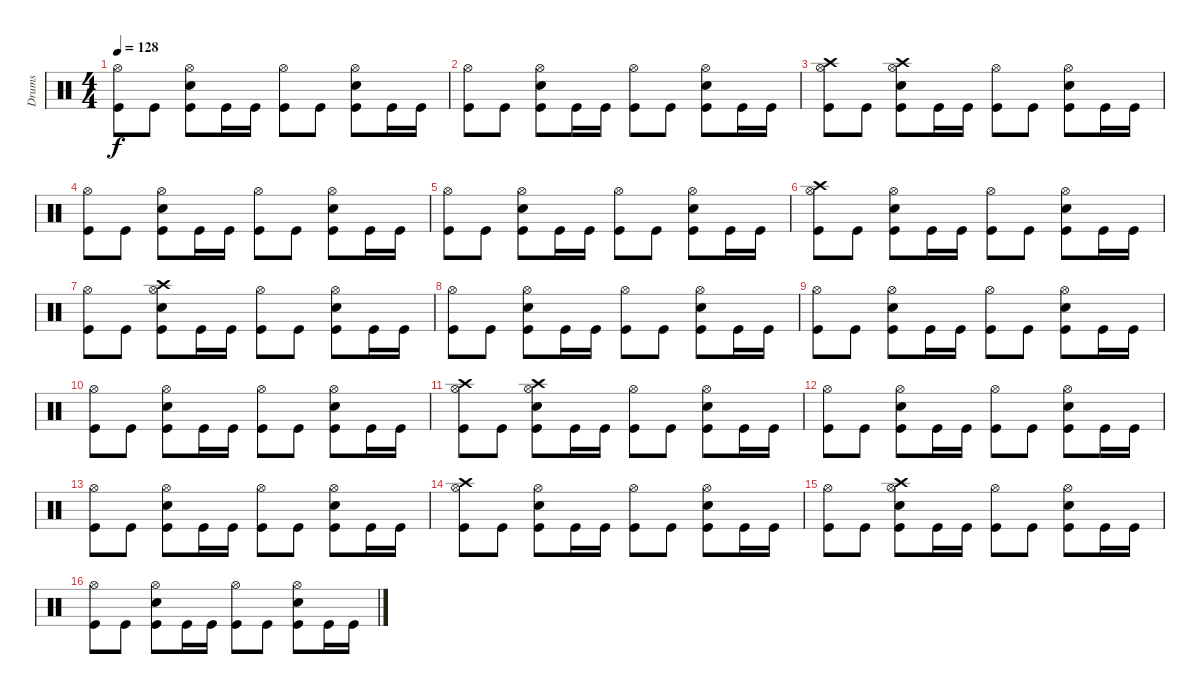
\track ("Drums" "Drums") {instrument percussion}
\staff {score}
\articulation defaults
\ts (4 4)
\tempo 128
\clef neutral
\ks c
("Hi-Hat (open)" "Kick (hit)").8{dy f} "Kick (hit)".8 ("Hi-Hat (open)" "Snare (hit) 2" "Kick (hit)").8 "Kick (hit)".16 "Kick (hit)".16 ("Hi-Hat (open)" "Kick (hit)").8 "Kick (hit)".8 ("Hi-Hat (open)" "Snare (hit) 2" "Kick (hit)").8 "Kick (hit)".16 "Kick (hit)".16 |
("Hi-Hat (open)" "Kick (hit)").8 "Kick (hit)".8 ("Hi-Hat (open)" "Snare (hit) 2" "Kick (hit)").8 "Kick (hit)".16 "Kick (hit)".16 ("Hi-Hat (open)" "Kick (hit)").8 "Kick (hit)".8 ("Hi-Hat (open)" "Snare (hit) 2" "Kick (hit)").8 "Kick (hit)".16 "Kick (hit)".16 |
("Crash high (hit)" "Hi-Hat (open)" "Kick (hit)").8 "Kick (hit)".8 ("Crash high (hit)" "Hi-Hat (open)" "Snare (hit) 2" "Kick (hit)").8 "Kick (hit)".16 "Kick (hit)".16 ("Hi-Hat (open)" "Kick (hit)").8 "Kick (hit)".8 ("Hi-Hat (open)" "Snare (hit) 2" "Kick (hit)").8 "Kick (hit)".16 "Kick (hit)".16 |
("Hi-Hat (open)" "Kick (hit)").8 "Kick (hit)".8 ("Hi-Hat (open)" "Snare (hit) 2" "Kick (hit)").8 "Kick (hit)".16 "Kick (hit)".16 ("Hi-Hat (open)" "Kick (hit)").8 "Kick (hit)".8 ("Hi-Hat (open)" "Snare (hit) 2" "Kick (hit)").8 "Kick (hit)".16 "Kick (hit)".16 |
("Hi-Hat (open)" "Kick (hit)").8 "Kick (hit)".8 ("Hi-Hat (open)" "Snare (hit) 2" "Kick (hit)").8 "Kick (hit)".16 "Kick (hit)".16 ("Hi-Hat (open)" "Kick (hit)").8 "Kick (hit)".8 ("Hi-Hat (open)" "Snare (hit) 2" "Kick (hit)").8 "Kick (hit)".16 "Kick (hit)".16 |
("Crash high (hit)" "Hi-Hat (open)" "Kick (hit)").8 "Kick (hit)".8 ("Hi-Hat (open)" "Snare (hit) 2" "Kick (hit)").8 "Kick (hit)".16 "Kick (hit)".16 ("Hi-Hat (open)" "Kick (hit)").8 "Kick (hit)".8 ("Hi-Hat (open)" "Snare (hit) 2" "Kick (hit)").8 "Kick (hit)".16 "Kick (hit)".16 |
("Hi-Hat (open)" "Kick (hit)").8 "Kick (hit)".8 ("Crash high (hit)" "Hi-Hat (open)" "Snare (hit) 2" "Kick (hit)").8 "Kick (hit)".16 "Kick (hit)".16 ("Hi-Hat (open)" "Kick (hit)").8 "Kick (hit)".8 ("Hi-Hat (open)" "Snare (hit) 2" "Kick (hit)").8 "Kick (hit)".16 "Kick (hit)".16 |
("Hi-Hat (open)" "Kick (hit)").8 "Kick (hit)".8 ("Hi-Hat (open)" "Snare (hit) 2" "Kick (hit)").8 "Kick (hit)".16 "Kick (hit)".16 ("Hi-Hat (open)" "Kick (hit)").8 "Kick (hit)".8 ("Hi-Hat (open)" "Snare (hit) 2" "Kick (hit)").8 "Kick (hit)".16 "Kick (hit)".16 |
("Hi-Hat (open)" "Kick (hit)").8 "Kick (hit)".8 ("Hi-Hat (open)" "Snare (hit) 2" "Kick (hit)").8 "Kick (hit)".16 "Kick (hit)".16 ("Hi-Hat (open)" "Kick (hit)").8 "Kick (hit)".8 ("Hi-Hat (open)" "Snare (hit) 2" "Kick (hit)").8 "Kick (hit)".16 "Kick (hit)".16 |
("Hi-Hat (open)" "Kick (hit)").8 "Kick (hit)".8 ("Hi-Hat (open)" "Snare (hit) 2" "Kick (hit)").8 "Kick (hit)".16 "Kick (hit)".16 ("Hi-Hat (open)" "Kick (hit)").8 "Kick (hit)".8 ("Hi-Hat (open)" "Snare (hit) 2" "Kick (hit)").8 "Kick (hit)".16 "Kick (hit)".16 |
("Crash high (hit)" "Hi-Hat (open)" "Kick (hit)").8 "Kick (hit)".8 ("Crash high (hit)" "Hi-Hat (open)" "Snare (hit) 2" "Kick (hit)").8 "Kick (hit)".16 "Kick (hit)".16 ("Hi-Hat (open)" "Kick (hit)").8 "Kick (hit)".8 ("Hi-Hat (open)" "Snare (hit) 2" "Kick (hit)").8 "Kick (hit)".16 "Kick (hit)".16 |
("Hi-Hat (open)" "Kick (hit)").8 "Kick (hit)".8 ("Hi-Hat (open)" "Snare (hit) 2" "Kick (hit)").8 "Kick (hit)".16 "Kick (hit)".16 ("Hi-Hat (open)" "Kick (hit)").8 "Kick (hit)".8 ("Hi-Hat (open)" "Snare (hit) 2" "Kick (hit)").8 "Kick (hit)".16 "Kick (hit)".16 |
("Hi-Hat (open)" "Kick (hit)").8 "Kick (hit)".8 ("Hi-Hat (open)" "Snare (hit) 2" "Kick (hit)").8 "Kick (hit)".16 "Kick (hit)".16 ("Hi-Hat (open)" "Kick (hit)").8 "Kick (hit)".8 ("Hi-Hat (open)" "Snare (hit) 2" "Kick (hit)").8 "Kick (hit)".16 "Kick (hit)".16 |
("Crash high (hit)" "Hi-Hat (open)" "Kick (hit)").8 "Kick (hit)".8 ("Hi-Hat (open)" "Snare (hit) 2" "Kick (hit)").8 "Kick (hit)".16 "Kick (hit)".16 ("Hi-Hat (open)" "Kick (hit)").8 "Kick (hit)".8 ("Hi-Hat (open)" "Snare (hit) 2" "Kick (hit)").8 "Kick (hit)".16 "Kick (hit)".16 |
("Hi-Hat (open)" "Kick (hit)").8 "Kick (hit)".8 ("Crash high (hit)" "Hi-Hat (open)" "Snare (hit) 2" "Kick (hit)").8 "Kick (hit)".16 "Kick (hit)".16 ("Hi-Hat (open)" "Kick (hit)").8 "Kick (hit)".8 ("Hi-Hat (open)" "Snare (hit) 2" "Kick (hit)").8 "Kick (hit)".16 "Kick (hit)".16 |
("Hi-Hat (open)" "Kick (hit)").8 "Kick (hit)".8 ("Hi-Hat (open)" "Snare (hit) 2" "Kick (hit)").8 "Kick (hit)".16 "Kick (hit)".16 ("Hi-Hat (open)" "Kick (hit)").8 "Kick (hit)".8 ("Hi-Hat (open)" "Snare (hit) 2" "Kick (hit)").8 "Kick (hit)".16 "Kick (hit)".16
